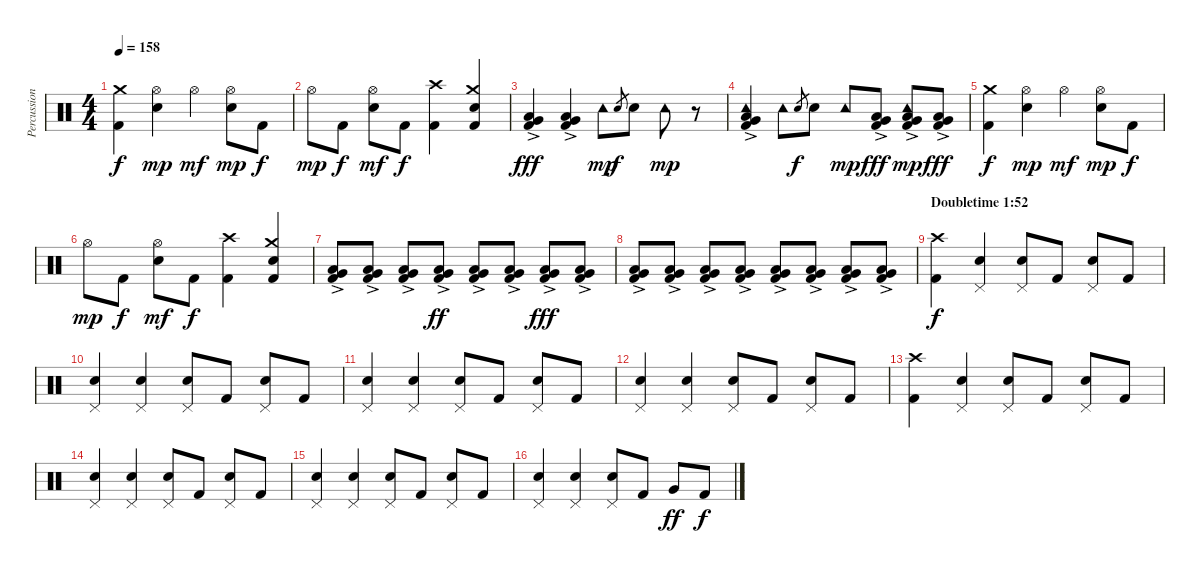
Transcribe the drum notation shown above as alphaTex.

\track ("Percussion" "Percussion") {instrument percussion}
\staff {score}
\articulation defaults
\ts (4 4)
\tempo 158
\clef neutral
\ks c
("Kick (hit) 2" "Crash medium (hit)").4{dy f} ("Electric Snare (hit)" "Hi-Hat (open)").4{dy mp} "Hi-Hat (open)".4{dy mf} ("Electric Snare (hit)" "Hi-Hat (open)").8{dy mp} "Kick (hit) 2".8{dy f} |
"Hi-Hat (open)".8{dy mp} "Kick (hit) 2".8{dy f} ("Electric Snare (hit)" "Hi-Hat (open)").8{dy mf} "Kick (hit) 2".8{dy f} ("Kick (hit) 2" "Crash high (hit)").4 ("Kick (hit) 2" "Electric Snare (hit)" "Crash medium (hit)").4 |
("Kick (hit) 2" "Very Low Tom (hit)"{ac} "Low Tom (hit)"{ac}).4{dy fff} ("Kick (hit) 2" "Very Low Tom (hit)"{ac} "Low Floor Tom (hit)"{ac}).4 "Tambourine (hit)".8{dy mp} "Electric Snare (hit)".8{gr dy f} "Electric Snare (hit)".8 "Tambourine (hit)".8{dy mp} r.8 |
("Kick (hit) 2" "Very Low Tom (hit)"{ac} "Low Tom (hit)"{ac} "Tambourine (hit)").4 "Tambourine (hit)".8 "Electric Snare (hit)".8{gr dy f} "Electric Snare (hit)".8 "Tambourine (hit)".8{dy mp} ("Kick (hit) 2" "Very Low Tom (hit)"{ac} "Low Floor Tom (hit)"{ac}).8{dy fff} ("Kick (hit) 2" "Very Low Tom (hit)"{ac} "Low Tom (hit)"{ac} "Tambourine (hit)").8{dy mp} ("Kick (hit) 2" "Very Low Tom (hit)"{ac} "Low Tom (hit)"{ac}).8{dy fff} |
("Kick (hit) 2" "Crash medium (hit)").4{dy f} ("Electric Snare (hit)" "Hi-Hat (open)").4{dy mp} "Hi-Hat (open)".4{dy mf} ("Electric Snare (hit)" "Hi-Hat (open)").8{dy mp} "Kick (hit) 2".8{dy f} |
"Hi-Hat (open)".8{dy mp} "Kick (hit) 2".8{dy f} ("Electric Snare (hit)" "Hi-Hat (open)").8{dy mf} "Kick (hit) 2".8{dy f} ("Kick (hit) 2" "Crash high (hit)").4 ("Kick (hit) 2" "Electric Snare (hit)" "Crash medium (hit)").4 |
("Kick (hit) 2" "Low Tom (hit)"{ac} "Very Low Tom (hit)"{ac}).8 ("Kick (hit) 2" "Low Tom (hit)"{ac} "Very Low Tom (hit)"{ac}).8 ("Kick (hit) 2" "Low Tom (hit)"{ac} "Very Low Tom (hit)"{ac}).8 ("Kick (hit) 2" "Low Tom (hit)"{ac} "Very Low Tom (hit)"{ac}).8{dy ff} ("Kick (hit) 2" "Low Tom (hit)"{ac} "Very Low Tom (hit)"{ac}).8 ("Kick (hit) 2" "Low Tom (hit)"{ac} "Very Low Tom (hit)"{ac}).8 ("Kick (hit) 2" "Low Tom (hit)"{ac} "Very Low Tom (hit)"{ac}).8{dy fff} ("Kick (hit) 2" "Low Tom (hit)"{ac} "Very Low Tom (hit)"{ac}).8 |
("Kick (hit) 2" "Low Tom (hit)"{ac} "Very Low Tom (hit)"{ac}).8 ("Kick (hit) 2" "Low Tom (hit)"{ac} "Very Low Tom (hit)"{ac}).8 ("Kick (hit) 2" "Low Tom (hit)"{ac} "Very Low Tom (hit)"{ac}).8 ("Kick (hit) 2" "Low Tom (hit)"{ac} "Very Low Tom (hit)"{ac}).8 ("Kick (hit) 2" "Low Tom (hit)"{ac} "Very Low Tom (hit)"{ac}).8 ("Kick (hit) 2" "Low Tom (hit)"{ac} "Very Low Tom (hit)"{ac}).8 ("Kick (hit) 2" "Low Tom (hit)"{ac} "Very Low Tom (hit)"{ac}).8 ("Kick (hit) 2" "Low Tom (hit)"{ac} "Very Low Tom (hit)"{ac}).8 |
\section ("" "Doubletime 1:52")
("Kick (hit) 2" "Crash high (hit)").4{dy f} ("Electric Snare (hit)" "Pedal Hi-Hat (hit)").4 ("Electric Snare (hit)" "Pedal Hi-Hat (hit)").8 "Kick (hit) 2".8 ("Electric Snare (hit)" "Pedal Hi-Hat (hit)").8 "Kick (hit) 2".8 |
("Electric Snare (hit)" "Pedal Hi-Hat (hit)").4 ("Electric Snare (hit)" "Pedal Hi-Hat (hit)").4 ("Electric Snare (hit)" "Pedal Hi-Hat (hit)").8 "Kick (hit) 2".8 ("Electric Snare (hit)" "Pedal Hi-Hat (hit)").8 "Kick (hit) 2".8 |
("Electric Snare (hit)" "Pedal Hi-Hat (hit)").4 ("Electric Snare (hit)" "Pedal Hi-Hat (hit)").4 ("Electric Snare (hit)" "Pedal Hi-Hat (hit)").8 "Kick (hit) 2".8 ("Electric Snare (hit)" "Pedal Hi-Hat (hit)").8 "Kick (hit) 2".8 |
("Electric Snare (hit)" "Pedal Hi-Hat (hit)").4 ("Electric Snare (hit)" "Pedal Hi-Hat (hit)").4 ("Electric Snare (hit)" "Pedal Hi-Hat (hit)").8 "Kick (hit) 2".8 ("Electric Snare (hit)" "Pedal Hi-Hat (hit)").8 "Kick (hit) 2".8 |
("Kick (hit) 2" "Crash high (hit)").4 ("Electric Snare (hit)" "Pedal Hi-Hat (hit)").4 ("Electric Snare (hit)" "Pedal Hi-Hat (hit)").8 "Kick (hit) 2".8 ("Electric Snare (hit)" "Pedal Hi-Hat (hit)").8 "Kick (hit) 2".8 |
("Electric Snare (hit)" "Pedal Hi-Hat (hit)").4 ("Electric Snare (hit)" "Pedal Hi-Hat (hit)").4 ("Electric Snare (hit)" "Pedal Hi-Hat (hit)").8 "Kick (hit) 2".8 ("Electric Snare (hit)" "Pedal Hi-Hat (hit)").8 "Kick (hit) 2".8 |
("Electric Snare (hit)" "Pedal Hi-Hat (hit)").4 ("Electric Snare (hit)" "Pedal Hi-Hat (hit)").4 ("Electric Snare (hit)" "Pedal Hi-Hat (hit)").8 "Kick (hit) 2".8 ("Electric Snare (hit)" "Pedal Hi-Hat (hit)").8 "Kick (hit) 2".8 |
("Electric Snare (hit)" "Pedal Hi-Hat (hit)").4 ("Electric Snare (hit)" "Pedal Hi-Hat (hit)").4 ("Electric Snare (hit)" "Pedal Hi-Hat (hit)").8 "Kick (hit) 2".8 "Very Low Tom (hit)".8{dy ff} "Kick (hit) 2".8{dy f}
